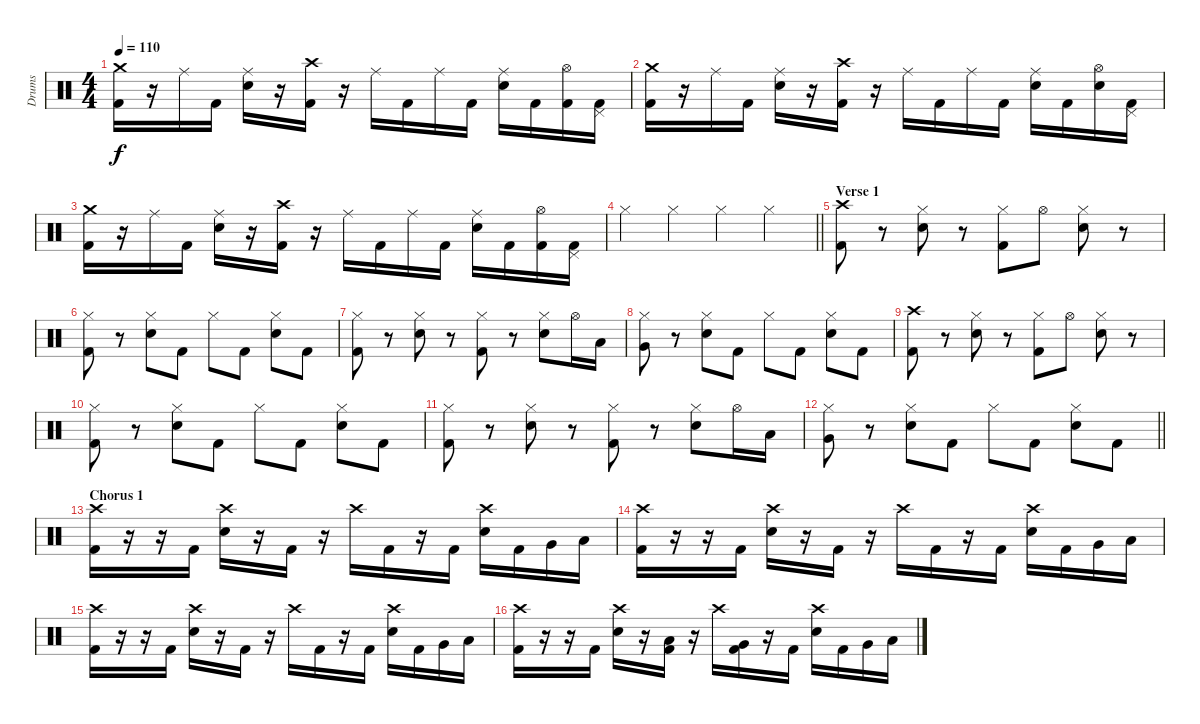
\track ("Drums" "Drums") {instrument percussion}
\staff {score}
\articulation defaults
\ts (4 4)
\tempo 110
\clef neutral
\ks c
("Crash medium (hit)" "Kick (hit) 2").16{dy f} r.16 "Ride (middle)".16 "Kick (hit) 2".16 ("Ride (middle)" "Snare (hit) 2").16 r.16 ("Crash high (hit)" "Kick (hit) 2").16 r.16 "Ride (middle)".16 "Kick (hit) 2".16 "Ride (middle)".16 "Kick (hit) 2".16 ("Ride (middle)" "Snare (hit) 2").16 "Kick (hit) 2".16 ("Hi-Hat (open)" "Kick (hit) 2").16 ("Pedal Hi-Hat (hit)" "Kick (hit) 2").16 |
("Crash medium (hit)" "Kick (hit) 2").16 r.16 "Ride (middle)".16 "Kick (hit) 2".16 ("Ride (middle)" "Snare (hit) 2").16 r.16 ("Crash high (hit)" "Kick (hit) 2").16 r.16 "Ride (middle)".16 "Kick (hit) 2".16 "Ride (middle)".16 "Kick (hit) 2".16 ("Ride (middle)" "Snare (hit) 2").16 "Kick (hit) 2".16 ("Hi-Hat (open)" "Snare (hit) 2").16 ("Pedal Hi-Hat (hit)" "Kick (hit) 2").16 |
("Crash medium (hit)" "Kick (hit) 2").16 r.16 "Ride (middle)".16 "Kick (hit) 2".16 ("Ride (middle)" "Snare (hit) 2").16 r.16 ("Crash high (hit)" "Kick (hit) 2").16 r.16 "Ride (middle)".16 "Kick (hit) 2".16 "Ride (middle)".16 "Kick (hit) 2".16 ("Ride (middle)" "Snare (hit) 2").16 "Kick (hit) 2".16 ("Hi-Hat (open)" "Kick (hit) 2").16 ("Pedal Hi-Hat (hit)" "Kick (hit) 2").16 |
\barLineRight lightlight "Hi-Hat (closed)".4 "Hi-Hat (closed)".4 "Hi-Hat (closed)".4 "Hi-Hat (closed)".4
|
\section ("" "Verse 1")
("Crash high (hit)" "Kick (hit) 2").8 r.8 ("Hi-Hat (closed)" "Snare (hit) 2").8 r.8 ("Hi-Hat (closed)" "Kick (hit) 2").8 "Hi-Hat (open)".8 ("Hi-Hat (closed)" "Snare (hit) 2").8 r.8 |
("Hi-Hat (closed)" "Kick (hit) 2").8 r.8 ("Hi-Hat (closed)" "Snare (hit) 2").8 "Kick (hit) 2".8 "Hi-Hat (closed)".8 "Kick (hit) 2".8 ("Hi-Hat (closed)" "Snare (hit) 2").8 "Kick (hit) 2".8 |
("Hi-Hat (closed)" "Kick (hit) 2").8 r.8 ("Hi-Hat (closed)" "Snare (hit) 2").8 r.8 ("Hi-Hat (closed)" "Kick (hit) 2").8 r.8 ("Hi-Hat (closed)" "Snare (hit) 2").8 "Hi-Hat (open)".16 "Low Tom (hit)".16 |
("Hi-Hat (closed)" "Very Low Tom (hit)").8 r.8 ("Hi-Hat (closed)" "Snare (hit) 2").8 "Kick (hit) 2".8 "Hi-Hat (closed)".8 "Kick (hit) 2".8 ("Hi-Hat (closed)" "Snare (hit) 2").8 "Kick (hit) 2".8 |
("Crash high (hit)" "Kick (hit) 2").8 r.8 ("Hi-Hat (closed)" "Snare (hit) 2").8 r.8 ("Hi-Hat (closed)" "Kick (hit) 2").8 "Hi-Hat (open)".8 ("Hi-Hat (closed)" "Snare (hit) 2").8 r.8 |
("Hi-Hat (closed)" "Kick (hit) 2").8 r.8 ("Hi-Hat (closed)" "Snare (hit) 2").8 "Kick (hit) 2".8 "Hi-Hat (closed)".8 "Kick (hit) 2".8 ("Hi-Hat (closed)" "Snare (hit) 2").8 "Kick (hit) 2".8 |
("Hi-Hat (closed)" "Kick (hit) 2").8 r.8 ("Hi-Hat (closed)" "Snare (hit) 2").8 r.8 ("Hi-Hat (closed)" "Kick (hit) 2").8 r.8 ("Hi-Hat (closed)" "Snare (hit) 2").8 "Hi-Hat (open)".16 "Low Tom (hit)".16 |
\barLineRight lightlight
("Hi-Hat (closed)" "Very Low Tom (hit)").8 r.8 ("Hi-Hat (closed)" "Snare (hit) 2").8 "Kick (hit) 2".8 "Hi-Hat (closed)".8 "Kick (hit) 2".8 ("Hi-Hat (closed)" "Snare (hit) 2").8 "Kick (hit) 2".8 |
\section ("" "Chorus 1")
("Crash high (hit)" "Kick (hit) 2").16 r.16 r.16 "Kick (hit) 2".16 ("Crash high (hit)" "Snare (hit) 2").16 r.16 "Kick (hit) 2".16 r.16 "Crash high (hit)".16 "Kick (hit) 2".16 r.16 "Kick (hit) 2".16 ("Crash high (hit)" "Snare (hit) 2").16 "Kick (hit) 2".16 "Very Low Tom (hit)".16 "Low Tom (hit)".16 |
("Crash high (hit)" "Kick (hit) 2").16 r.16 r.16 "Kick (hit) 2".16 ("Crash high (hit)" "Snare (hit) 2").16 r.16 "Kick (hit) 2".16 r.16 "Crash high (hit)".16 "Kick (hit) 2".16 r.16 "Kick (hit) 2".16 ("Crash high (hit)" "Snare (hit) 2").16 "Kick (hit) 2".16 "Very Low Tom (hit)".16 "Low Tom (hit)".16 |
("Crash high (hit)" "Kick (hit) 2").16 r.16 r.16 "Kick (hit) 2".16 ("Crash high (hit)" "Snare (hit) 2").16 r.16 "Kick (hit) 2".16 r.16 "Crash high (hit)".16 "Kick (hit) 2".16 r.16 "Kick (hit) 2".16 ("Crash high (hit)" "Snare (hit) 2").16 "Kick (hit) 2".16 "Very Low Tom (hit)".16 "Low Tom (hit)".16 |
("Crash high (hit)" "Kick (hit) 2").16 r.16 r.16 "Kick (hit) 2".16 ("Crash high (hit)" "Snare (hit) 2").16 r.16 ("Low Tom (hit)" "Kick (hit) 2").16 r.16 "Crash high (hit)".16 ("Very Low Tom (hit)" "Kick (hit) 2").16 r.16 "Kick (hit) 2".16 ("Crash high (hit)" "Snare (hit) 2").16 "Kick (hit) 2".16 "Very Low Tom (hit)".16 "Low Tom (hit)".16
